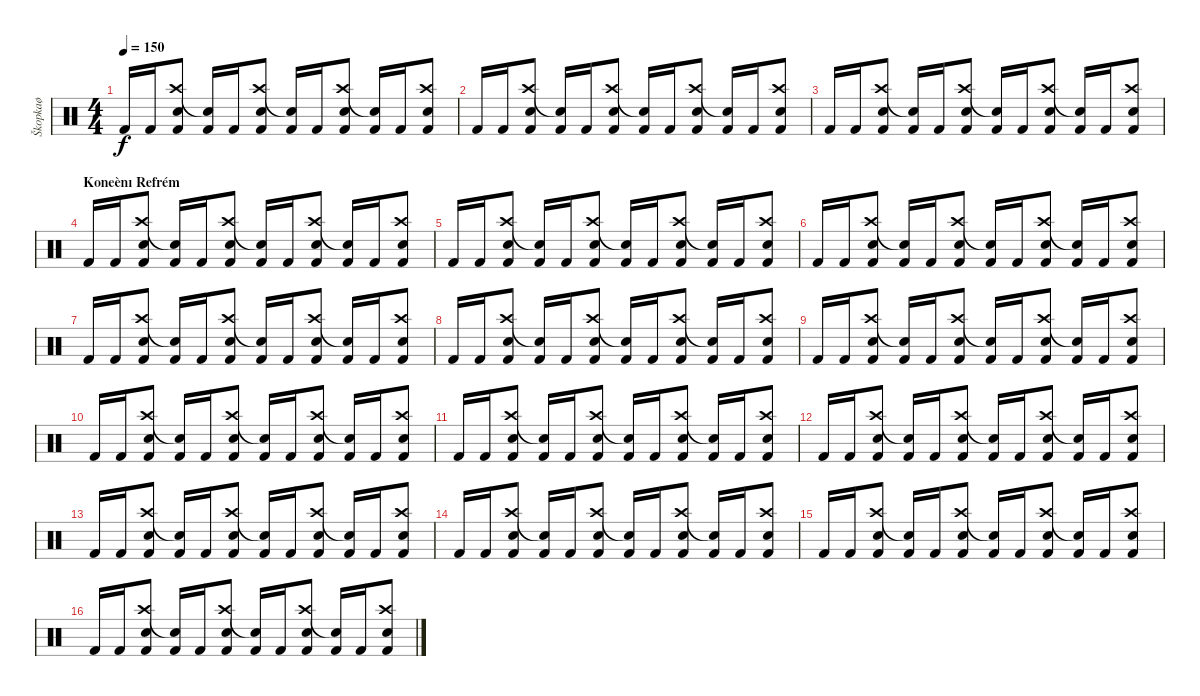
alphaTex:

\track ("Škopkaø" "Škopkaø") {instrument percussion}
\staff {score}
\articulation defaults
\ts (4 4)
\tempo 150
\clef neutral
\ks c "Kick (hit) 2".16{dy f} "Kick (hit) 2".16
("Crash high (hit)" "Electric Snare (hit)" "Kick (hit) 2").8 ("Snare (hit)"{t} "Kick (hit) 2").16 "Kick (hit) 2".16 ("Crash high (hit)" "Electric Snare (hit)" "Kick (hit) 2").8 ("Snare (hit)"{t} "Kick (hit) 2").16 "Kick (hit) 2".16 ("Crash high (hit)" "Electric Snare (hit)" "Kick (hit) 2").8 ("Snare (hit)"{t} "Kick (hit) 2").16 "Kick (hit) 2".16 ("Crash high (hit)" "Electric Snare (hit)" "Kick (hit) 2").8 |
"Kick (hit) 2".16 "Kick (hit) 2".16 ("Crash high (hit)" "Electric Snare (hit)" "Kick (hit) 2").8 ("Snare (hit)"{t} "Kick (hit) 2").16 "Kick (hit) 2".16 ("Crash high (hit)" "Electric Snare (hit)" "Kick (hit) 2").8 ("Snare (hit)"{t} "Kick (hit) 2").16 "Kick (hit) 2".16 ("Crash high (hit)" "Electric Snare (hit)" "Kick (hit) 2").8 ("Snare (hit)"{t} "Kick (hit) 2").16 "Kick (hit) 2".16 ("Crash high (hit)" "Electric Snare (hit)" "Kick (hit) 2").8 |
"Kick (hit) 2".16 "Kick (hit) 2".16 ("Crash high (hit)" "Electric Snare (hit)" "Kick (hit) 2").8 ("Snare (hit)"{t} "Kick (hit) 2").16 "Kick (hit) 2".16 ("Crash high (hit)" "Electric Snare (hit)" "Kick (hit) 2").8 ("Snare (hit)"{t} "Kick (hit) 2").16 "Kick (hit) 2".16 ("Crash high (hit)" "Electric Snare (hit)" "Kick (hit) 2").8 ("Snare (hit)"{t} "Kick (hit) 2").16 "Kick (hit) 2".16 ("Crash high (hit)" "Electric Snare (hit)" "Kick (hit) 2").8 |
\section ("" "Koneènı Refrém")
"Kick (hit) 2".16 "Kick (hit) 2".16 ("Crash high (hit)" "Electric Snare (hit)" "Kick (hit) 2").8 ("Snare (hit)"{t} "Kick (hit) 2").16 "Kick (hit) 2".16 ("Crash high (hit)" "Electric Snare (hit)" "Kick (hit) 2").8 ("Snare (hit)"{t} "Kick (hit) 2").16 "Kick (hit) 2".16 ("Crash high (hit)" "Electric Snare (hit)" "Kick (hit) 2").8 ("Snare (hit)"{t} "Kick (hit) 2").16 "Kick (hit) 2".16 ("Crash high (hit)" "Electric Snare (hit)" "Kick (hit) 2").8 |
"Kick (hit) 2".16 "Kick (hit) 2".16 ("Crash high (hit)" "Electric Snare (hit)" "Kick (hit) 2").8 ("Snare (hit)"{t} "Kick (hit) 2").16 "Kick (hit) 2".16 ("Crash high (hit)" "Electric Snare (hit)" "Kick (hit) 2").8 ("Snare (hit)"{t} "Kick (hit) 2").16 "Kick (hit) 2".16 ("Crash high (hit)" "Electric Snare (hit)" "Kick (hit) 2").8 ("Snare (hit)"{t} "Kick (hit) 2").16 "Kick (hit) 2".16 ("Crash high (hit)" "Electric Snare (hit)" "Kick (hit) 2").8 |
"Kick (hit) 2".16 "Kick (hit) 2".16 ("Crash high (hit)" "Electric Snare (hit)" "Kick (hit) 2").8 ("Snare (hit)"{t} "Kick (hit) 2").16 "Kick (hit) 2".16 ("Crash high (hit)" "Electric Snare (hit)" "Kick (hit) 2").8 ("Snare (hit)"{t} "Kick (hit) 2").16 "Kick (hit) 2".16 ("Crash high (hit)" "Electric Snare (hit)" "Kick (hit) 2").8 ("Snare (hit)"{t} "Kick (hit) 2").16 "Kick (hit) 2".16 ("Crash high (hit)" "Electric Snare (hit)" "Kick (hit) 2").8 |
"Kick (hit) 2".16 "Kick (hit) 2".16 ("Crash high (hit)" "Electric Snare (hit)" "Kick (hit) 2").8 ("Snare (hit)"{t} "Kick (hit) 2").16 "Kick (hit) 2".16 ("Crash high (hit)" "Electric Snare (hit)" "Kick (hit) 2").8 ("Snare (hit)"{t} "Kick (hit) 2").16 "Kick (hit) 2".16 ("Crash high (hit)" "Electric Snare (hit)" "Kick (hit) 2").8 ("Snare (hit)"{t} "Kick (hit) 2").16 "Kick (hit) 2".16 ("Crash high (hit)" "Electric Snare (hit)" "Kick (hit) 2").8 |
"Kick (hit) 2".16 "Kick (hit) 2".16 ("Crash high (hit)" "Electric Snare (hit)" "Kick (hit) 2").8 ("Snare (hit)"{t} "Kick (hit) 2").16 "Kick (hit) 2".16 ("Crash high (hit)" "Electric Snare (hit)" "Kick (hit) 2").8 ("Snare (hit)"{t} "Kick (hit) 2").16 "Kick (hit) 2".16 ("Crash high (hit)" "Electric Snare (hit)" "Kick (hit) 2").8 ("Snare (hit)"{t} "Kick (hit) 2").16 "Kick (hit) 2".16 ("Crash high (hit)" "Electric Snare (hit)" "Kick (hit) 2").8 |
"Kick (hit) 2".16 "Kick (hit) 2".16 ("Crash high (hit)" "Electric Snare (hit)" "Kick (hit) 2").8 ("Snare (hit)"{t} "Kick (hit) 2").16 "Kick (hit) 2".16 ("Crash high (hit)" "Electric Snare (hit)" "Kick (hit) 2").8 ("Snare (hit)"{t} "Kick (hit) 2").16 "Kick (hit) 2".16 ("Crash high (hit)" "Electric Snare (hit)" "Kick (hit) 2").8 ("Snare (hit)"{t} "Kick (hit) 2").16 "Kick (hit) 2".16 ("Crash high (hit)" "Electric Snare (hit)" "Kick (hit) 2").8 |
"Kick (hit) 2".16 "Kick (hit) 2".16 ("Crash high (hit)" "Electric Snare (hit)" "Kick (hit) 2").8 ("Snare (hit)"{t} "Kick (hit) 2").16 "Kick (hit) 2".16 ("Crash high (hit)" "Electric Snare (hit)" "Kick (hit) 2").8 ("Snare (hit)"{t} "Kick (hit) 2").16 "Kick (hit) 2".16 ("Crash high (hit)" "Electric Snare (hit)" "Kick (hit) 2").8 ("Snare (hit)"{t} "Kick (hit) 2").16 "Kick (hit) 2".16 ("Crash high (hit)" "Electric Snare (hit)" "Kick (hit) 2").8 |
"Kick (hit) 2".16 "Kick (hit) 2".16 ("Crash high (hit)" "Electric Snare (hit)" "Kick (hit) 2").8 ("Snare (hit)"{t} "Kick (hit) 2").16 "Kick (hit) 2".16 ("Crash high (hit)" "Electric Snare (hit)" "Kick (hit) 2").8 ("Snare (hit)"{t} "Kick (hit) 2").16 "Kick (hit) 2".16 ("Crash high (hit)" "Electric Snare (hit)" "Kick (hit) 2").8 ("Snare (hit)"{t} "Kick (hit) 2").16 "Kick (hit) 2".16 ("Crash high (hit)" "Electric Snare (hit)" "Kick (hit) 2").8 |
"Kick (hit) 2".16 "Kick (hit) 2".16 ("Crash high (hit)" "Electric Snare (hit)" "Kick (hit) 2").8 ("Snare (hit)"{t} "Kick (hit) 2").16 "Kick (hit) 2".16 ("Crash high (hit)" "Electric Snare (hit)" "Kick (hit) 2").8 ("Snare (hit)"{t} "Kick (hit) 2").16 "Kick (hit) 2".16 ("Crash high (hit)" "Electric Snare (hit)" "Kick (hit) 2").8 ("Snare (hit)"{t} "Kick (hit) 2").16 "Kick (hit) 2".16 ("Crash high (hit)" "Electric Snare (hit)" "Kick (hit) 2").8 |
"Kick (hit) 2".16 "Kick (hit) 2".16 ("Crash high (hit)" "Electric Snare (hit)" "Kick (hit) 2").8 ("Snare (hit)"{t} "Kick (hit) 2").16 "Kick (hit) 2".16 ("Crash high (hit)" "Electric Snare (hit)" "Kick (hit) 2").8 ("Snare (hit)"{t} "Kick (hit) 2").16 "Kick (hit) 2".16 ("Crash high (hit)" "Electric Snare (hit)" "Kick (hit) 2").8 ("Snare (hit)"{t} "Kick (hit) 2").16 "Kick (hit) 2".16 ("Crash high (hit)" "Electric Snare (hit)" "Kick (hit) 2").8 |
"Kick (hit) 2".16 "Kick (hit) 2".16 ("Crash high (hit)" "Electric Snare (hit)" "Kick (hit) 2").8 ("Snare (hit)"{t} "Kick (hit) 2").16 "Kick (hit) 2".16 ("Crash high (hit)" "Electric Snare (hit)" "Kick (hit) 2").8 ("Snare (hit)"{t} "Kick (hit) 2").16 "Kick (hit) 2".16 ("Crash high (hit)" "Electric Snare (hit)" "Kick (hit) 2").8 ("Snare (hit)"{t} "Kick (hit) 2").16 "Kick (hit) 2".16 ("Crash high (hit)" "Electric Snare (hit)" "Kick (hit) 2").8 |
"Kick (hit) 2".16 "Kick (hit) 2".16 ("Crash high (hit)" "Electric Snare (hit)" "Kick (hit) 2").8 ("Snare (hit)"{t} "Kick (hit) 2").16 "Kick (hit) 2".16 ("Crash high (hit)" "Electric Snare (hit)" "Kick (hit) 2").8 ("Snare (hit)"{t} "Kick (hit) 2").16 "Kick (hit) 2".16 ("Crash high (hit)" "Electric Snare (hit)" "Kick (hit) 2").8 ("Snare (hit)"{t} "Kick (hit) 2").16 "Kick (hit) 2".16 ("Crash high (hit)" "Electric Snare (hit)" "Kick (hit) 2").8 |
"Kick (hit) 2".16 "Kick (hit) 2".16 ("Crash high (hit)" "Electric Snare (hit)" "Kick (hit) 2").8 ("Snare (hit)"{t} "Kick (hit) 2").16 "Kick (hit) 2".16 ("Crash high (hit)" "Electric Snare (hit)" "Kick (hit) 2").8 ("Snare (hit)"{t} "Kick (hit) 2").16 "Kick (hit) 2".16 ("Crash high (hit)" "Electric Snare (hit)" "Kick (hit) 2").8 ("Snare (hit)"{t} "Kick (hit) 2").16 "Kick (hit) 2".16 ("Crash high (hit)" "Electric Snare (hit)" "Kick (hit) 2").8
